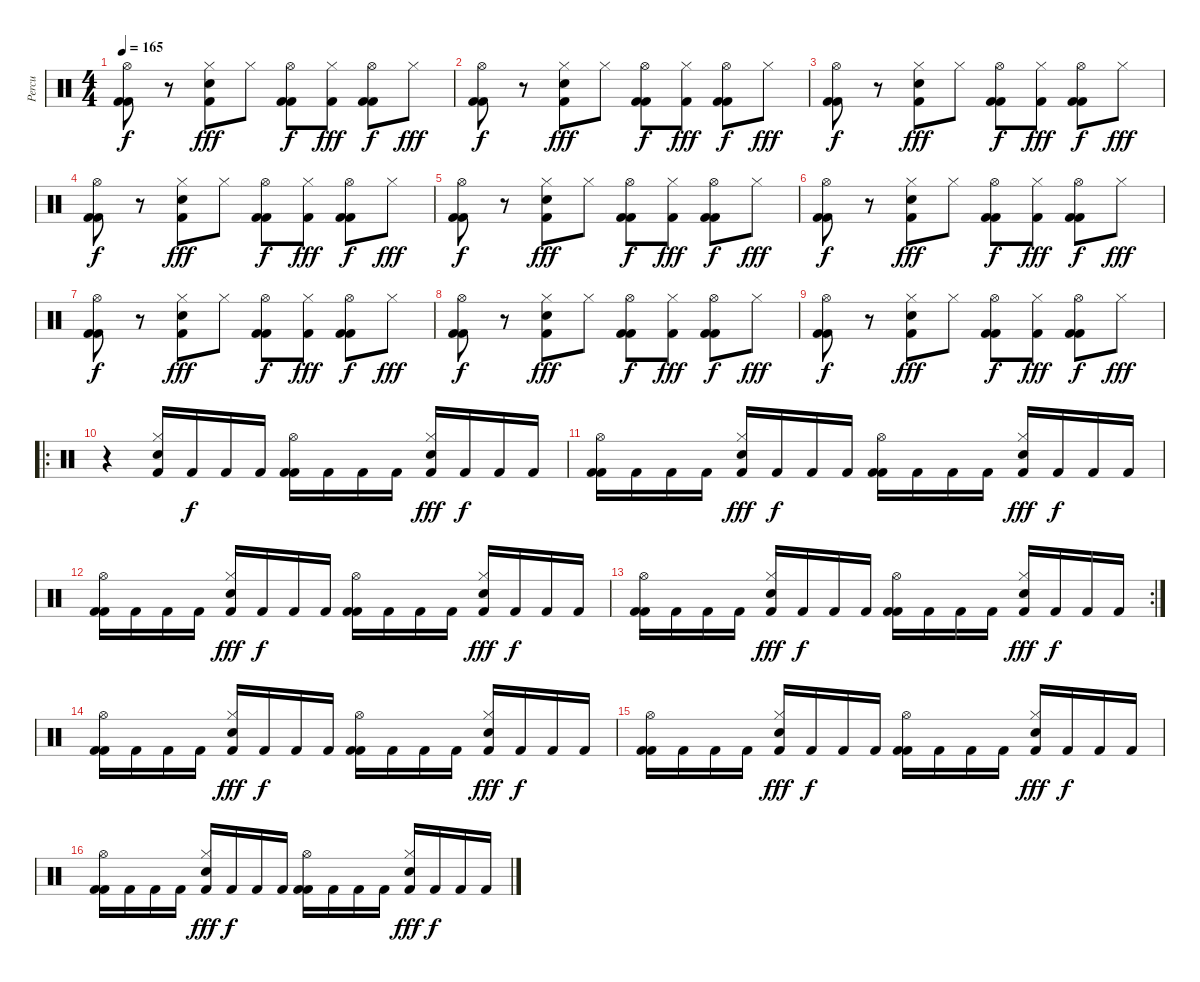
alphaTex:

\track ("Percu" "Percu") {instrument percussion}
\staff {score}
\articulation defaults
\ts (4 4)
\tempo 165
\clef neutral
\ks c
("Kick (hit) 2" "Hi-Hat (open)" "Kick (hit) 2").8{dy f} r.8 ("Hi-Hat (closed)" "Kick (hit) 2" "Snare (hit) 2").8{dy fff} "Hi-Hat (closed)".8 ("Kick (hit) 2" "Hi-Hat (open)" "Kick (hit) 2").8{dy f} ("Hi-Hat (closed)" "Kick (hit) 2").8{dy fff} ("Kick (hit) 2" "Hi-Hat (open)" "Kick (hit) 2").8{dy f} "Hi-Hat (closed)".8{dy fff} |
("Kick (hit) 2" "Hi-Hat (open)" "Kick (hit) 2").8{dy f} r.8 ("Hi-Hat (closed)" "Kick (hit) 2" "Snare (hit) 2").8{dy fff} "Hi-Hat (closed)".8 ("Kick (hit) 2" "Hi-Hat (open)" "Kick (hit) 2").8{dy f} ("Hi-Hat (closed)" "Kick (hit) 2").8{dy fff} ("Kick (hit) 2" "Hi-Hat (open)" "Kick (hit) 2").8{dy f} "Hi-Hat (closed)".8{dy fff} |
("Kick (hit) 2" "Hi-Hat (open)" "Kick (hit) 2").8{dy f} r.8 ("Hi-Hat (closed)" "Kick (hit) 2" "Snare (hit) 2").8{dy fff} "Hi-Hat (closed)".8 ("Kick (hit) 2" "Hi-Hat (open)" "Kick (hit) 2").8{dy f} ("Hi-Hat (closed)" "Kick (hit) 2").8{dy fff} ("Kick (hit) 2" "Hi-Hat (open)" "Kick (hit) 2").8{dy f} "Hi-Hat (closed)".8{dy fff} |
("Kick (hit) 2" "Hi-Hat (open)" "Kick (hit) 2").8{dy f} r.8 ("Hi-Hat (closed)" "Kick (hit) 2" "Snare (hit) 2").8{dy fff} "Hi-Hat (closed)".8 ("Kick (hit) 2" "Hi-Hat (open)" "Kick (hit) 2").8{dy f} ("Hi-Hat (closed)" "Kick (hit) 2").8{dy fff} ("Kick (hit) 2" "Hi-Hat (open)" "Kick (hit) 2").8{dy f} "Hi-Hat (closed)".8{dy fff} |
("Kick (hit) 2" "Hi-Hat (open)" "Kick (hit) 2").8{dy f} r.8 ("Hi-Hat (closed)" "Kick (hit) 2" "Snare (hit) 2").8{dy fff} "Hi-Hat (closed)".8 ("Kick (hit) 2" "Hi-Hat (open)" "Kick (hit) 2").8{dy f} ("Hi-Hat (closed)" "Kick (hit) 2").8{dy fff} ("Kick (hit) 2" "Hi-Hat (open)" "Kick (hit) 2").8{dy f} "Hi-Hat (closed)".8{dy fff} |
("Kick (hit) 2" "Hi-Hat (open)" "Kick (hit) 2").8{dy f} r.8 ("Hi-Hat (closed)" "Kick (hit) 2" "Snare (hit) 2").8{dy fff} "Hi-Hat (closed)".8 ("Kick (hit) 2" "Hi-Hat (open)" "Kick (hit) 2").8{dy f} ("Hi-Hat (closed)" "Kick (hit) 2").8{dy fff} ("Kick (hit) 2" "Hi-Hat (open)" "Kick (hit) 2").8{dy f} "Hi-Hat (closed)".8{dy fff} |
("Kick (hit) 2" "Hi-Hat (open)" "Kick (hit) 2").8{dy f} r.8 ("Hi-Hat (closed)" "Kick (hit) 2" "Snare (hit) 2").8{dy fff} "Hi-Hat (closed)".8 ("Kick (hit) 2" "Hi-Hat (open)" "Kick (hit) 2").8{dy f} ("Hi-Hat (closed)" "Kick (hit) 2").8{dy fff} ("Kick (hit) 2" "Hi-Hat (open)" "Kick (hit) 2").8{dy f} "Hi-Hat (closed)".8{dy fff} |
("Kick (hit) 2" "Hi-Hat (open)" "Kick (hit) 2").8{dy f} r.8 ("Hi-Hat (closed)" "Kick (hit) 2" "Snare (hit) 2").8{dy fff} "Hi-Hat (closed)".8 ("Kick (hit) 2" "Hi-Hat (open)" "Kick (hit) 2").8{dy f} ("Hi-Hat (closed)" "Kick (hit) 2").8{dy fff} ("Kick (hit) 2" "Hi-Hat (open)" "Kick (hit) 2").8{dy f} "Hi-Hat (closed)".8{dy fff} |
("Kick (hit) 2" "Hi-Hat (open)" "Kick (hit) 2").8{dy f} r.8 ("Hi-Hat (closed)" "Kick (hit) 2" "Snare (hit) 2").8{dy fff} "Hi-Hat (closed)".8 ("Kick (hit) 2" "Hi-Hat (open)" "Kick (hit) 2").8{dy f} ("Hi-Hat (closed)" "Kick (hit) 2").8{dy fff} ("Kick (hit) 2" "Hi-Hat (open)" "Kick (hit) 2").8{dy f} "Hi-Hat (closed)".8{dy fff} |
\ro
r.4 ("Hi-Hat (closed)" "Kick (hit) 2" "Snare (hit) 2").16 "Kick (hit) 2".16{dy f} "Kick (hit) 2".16 "Kick (hit) 2".16 ("Kick (hit) 2" "Hi-Hat (open)" "Kick (hit) 2").16 "Kick (hit) 2".16 "Kick (hit) 2".16 "Kick (hit) 2".16 ("Hi-Hat (closed)" "Kick (hit) 2" "Snare (hit) 2").16{dy fff} "Kick (hit) 2".16{dy f} "Kick (hit) 2".16 "Kick (hit) 2".16 |
("Kick (hit) 2" "Hi-Hat (open)" "Kick (hit) 2").16 "Kick (hit) 2".16 "Kick (hit) 2".16 "Kick (hit) 2".16 ("Hi-Hat (closed)" "Kick (hit) 2" "Snare (hit) 2").16{dy fff} "Kick (hit) 2".16{dy f} "Kick (hit) 2".16 "Kick (hit) 2".16 ("Kick (hit) 2" "Hi-Hat (open)" "Kick (hit) 2").16 "Kick (hit) 2".16 "Kick (hit) 2".16 "Kick (hit) 2".16 ("Hi-Hat (closed)" "Kick (hit) 2" "Snare (hit) 2").16{dy fff} "Kick (hit) 2".16{dy f} "Kick (hit) 2".16 "Kick (hit) 2".16 |
("Kick (hit) 2" "Hi-Hat (open)" "Kick (hit) 2").16 "Kick (hit) 2".16 "Kick (hit) 2".16 "Kick (hit) 2".16 ("Hi-Hat (closed)" "Kick (hit) 2" "Snare (hit) 2").16{dy fff} "Kick (hit) 2".16{dy f} "Kick (hit) 2".16 "Kick (hit) 2".16 ("Kick (hit) 2" "Hi-Hat (open)" "Kick (hit) 2").16 "Kick (hit) 2".16 "Kick (hit) 2".16 "Kick (hit) 2".16 ("Hi-Hat (closed)" "Kick (hit) 2" "Snare (hit) 2").16{dy fff} "Kick (hit) 2".16{dy f} "Kick (hit) 2".16 "Kick (hit) 2".16 |
\rc 2
("Kick (hit) 2" "Hi-Hat (open)" "Kick (hit) 2").16 "Kick (hit) 2".16 "Kick (hit) 2".16 "Kick (hit) 2".16 ("Hi-Hat (closed)" "Kick (hit) 2" "Snare (hit) 2").16{dy fff} "Kick (hit) 2".16{dy f} "Kick (hit) 2".16 "Kick (hit) 2".16 ("Kick (hit) 2" "Hi-Hat (open)" "Kick (hit) 2").16 "Kick (hit) 2".16 "Kick (hit) 2".16 "Kick (hit) 2".16 ("Hi-Hat (closed)" "Kick (hit) 2" "Snare (hit) 2").16{dy fff} "Kick (hit) 2".16{dy f} "Kick (hit) 2".16 "Kick (hit) 2".16 |
("Kick (hit) 2" "Hi-Hat (open)" "Kick (hit) 2").16 "Kick (hit) 2".16 "Kick (hit) 2".16 "Kick (hit) 2".16 ("Hi-Hat (closed)" "Kick (hit) 2" "Snare (hit) 2").16{dy fff} "Kick (hit) 2".16{dy f} "Kick (hit) 2".16 "Kick (hit) 2".16 ("Kick (hit) 2" "Hi-Hat (open)" "Kick (hit) 2").16 "Kick (hit) 2".16 "Kick (hit) 2".16 "Kick (hit) 2".16 ("Hi-Hat (closed)" "Kick (hit) 2" "Snare (hit) 2").16{dy fff} "Kick (hit) 2".16{dy f} "Kick (hit) 2".16 "Kick (hit) 2".16 |
("Kick (hit) 2" "Hi-Hat (open)" "Kick (hit) 2").16 "Kick (hit) 2".16 "Kick (hit) 2".16 "Kick (hit) 2".16 ("Hi-Hat (closed)" "Kick (hit) 2" "Snare (hit) 2").16{dy fff} "Kick (hit) 2".16{dy f} "Kick (hit) 2".16 "Kick (hit) 2".16 ("Kick (hit) 2" "Hi-Hat (open)" "Kick (hit) 2").16 "Kick (hit) 2".16 "Kick (hit) 2".16 "Kick (hit) 2".16 ("Hi-Hat (closed)" "Kick (hit) 2" "Snare (hit) 2").16{dy fff} "Kick (hit) 2".16{dy f} "Kick (hit) 2".16 "Kick (hit) 2".16 |
("Kick (hit) 2" "Hi-Hat (open)" "Kick (hit) 2").16 "Kick (hit) 2".16 "Kick (hit) 2".16 "Kick (hit) 2".16 ("Hi-Hat (closed)" "Kick (hit) 2" "Snare (hit) 2").16{dy fff} "Kick (hit) 2".16{dy f} "Kick (hit) 2".16 "Kick (hit) 2".16 ("Kick (hit) 2" "Hi-Hat (open)" "Kick (hit) 2").16 "Kick (hit) 2".16 "Kick (hit) 2".16 "Kick (hit) 2".16 ("Hi-Hat (closed)" "Kick (hit) 2" "Snare (hit) 2").16{dy fff} "Kick (hit) 2".16{dy f} "Kick (hit) 2".16 "Kick (hit) 2".16
